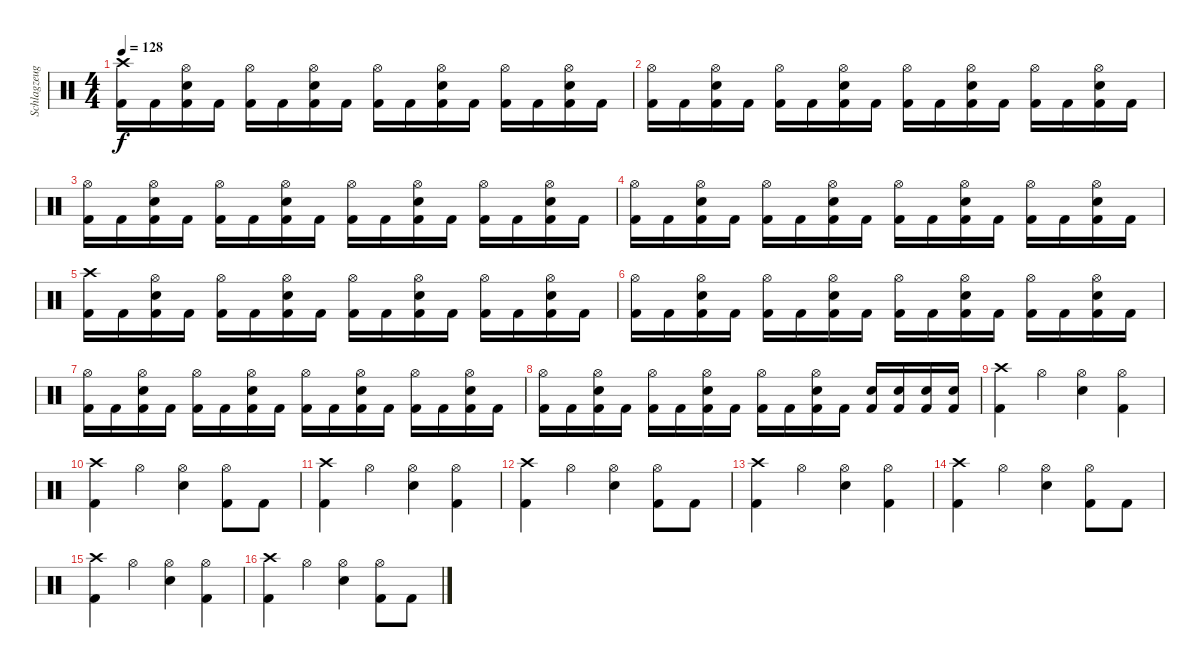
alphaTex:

\track ("Schlagzeug" "Schlagzeug") {instrument percussion}
\staff {score}
\articulation defaults
\ts (4 4)
\tempo 128
\clef neutral
\ks c
("Crash high (hit)" "Kick (hit) 2").16{dy f} "Kick (hit) 2".16 ("Hi-Hat (open)" "Snare (hit) 2" "Kick (hit) 2").16 "Kick (hit) 2".16 ("Hi-Hat (open)" "Kick (hit) 2").16 "Kick (hit) 2".16 ("Hi-Hat (open)" "Snare (hit) 2" "Kick (hit) 2").16 "Kick (hit) 2".16 ("Hi-Hat (open)" "Kick (hit) 2").16 "Kick (hit) 2".16 ("Hi-Hat (open)" "Snare (hit) 2" "Kick (hit) 2").16 "Kick (hit) 2".16 ("Hi-Hat (open)" "Kick (hit) 2").16 "Kick (hit) 2".16 ("Hi-Hat (open)" "Snare (hit) 2" "Kick (hit) 2").16 "Kick (hit) 2".16 |
("Hi-Hat (open)" "Kick (hit) 2").16 "Kick (hit) 2".16 ("Hi-Hat (open)" "Snare (hit) 2" "Kick (hit) 2").16 "Kick (hit) 2".16 ("Hi-Hat (open)" "Kick (hit) 2").16 "Kick (hit) 2".16 ("Hi-Hat (open)" "Snare (hit) 2" "Kick (hit) 2").16 "Kick (hit) 2".16 ("Hi-Hat (open)" "Kick (hit) 2").16 "Kick (hit) 2".16 ("Hi-Hat (open)" "Snare (hit) 2" "Kick (hit) 2").16 "Kick (hit) 2".16 ("Hi-Hat (open)" "Kick (hit) 2").16 "Kick (hit) 2".16 ("Hi-Hat (open)" "Snare (hit) 2" "Kick (hit) 2").16 "Kick (hit) 2".16 |
("Hi-Hat (open)" "Kick (hit) 2").16 "Kick (hit) 2".16 ("Hi-Hat (open)" "Snare (hit) 2" "Kick (hit) 2").16 "Kick (hit) 2".16 ("Hi-Hat (open)" "Kick (hit) 2").16 "Kick (hit) 2".16 ("Hi-Hat (open)" "Snare (hit) 2" "Kick (hit) 2").16 "Kick (hit) 2".16 ("Hi-Hat (open)" "Kick (hit) 2").16 "Kick (hit) 2".16 ("Hi-Hat (open)" "Snare (hit) 2" "Kick (hit) 2").16 "Kick (hit) 2".16 ("Hi-Hat (open)" "Kick (hit) 2").16 "Kick (hit) 2".16 ("Hi-Hat (open)" "Snare (hit) 2" "Kick (hit) 2").16 "Kick (hit) 2".16 |
("Hi-Hat (open)" "Kick (hit) 2").16 "Kick (hit) 2".16 ("Hi-Hat (open)" "Snare (hit) 2" "Kick (hit) 2").16 "Kick (hit) 2".16 ("Hi-Hat (open)" "Kick (hit) 2").16 "Kick (hit) 2".16 ("Hi-Hat (open)" "Snare (hit) 2" "Kick (hit) 2").16 "Kick (hit) 2".16 ("Hi-Hat (open)" "Kick (hit) 2").16 "Kick (hit) 2".16 ("Hi-Hat (open)" "Snare (hit) 2" "Kick (hit) 2").16 "Kick (hit) 2".16 ("Hi-Hat (open)" "Kick (hit) 2").16 "Kick (hit) 2".16 ("Hi-Hat (open)" "Snare (hit) 2" "Kick (hit) 2").16 "Kick (hit) 2".16 |
("Crash high (hit)" "Kick (hit) 2").16 "Kick (hit) 2".16 ("Hi-Hat (open)" "Snare (hit) 2" "Kick (hit) 2").16 "Kick (hit) 2".16 ("Hi-Hat (open)" "Kick (hit) 2").16 "Kick (hit) 2".16 ("Hi-Hat (open)" "Snare (hit) 2" "Kick (hit) 2").16 "Kick (hit) 2".16 ("Hi-Hat (open)" "Kick (hit) 2").16 "Kick (hit) 2".16 ("Hi-Hat (open)" "Snare (hit) 2" "Kick (hit) 2").16 "Kick (hit) 2".16 ("Hi-Hat (open)" "Kick (hit) 2").16 "Kick (hit) 2".16 ("Hi-Hat (open)" "Snare (hit) 2" "Kick (hit) 2").16 "Kick (hit) 2".16 |
("Hi-Hat (open)" "Kick (hit) 2").16 "Kick (hit) 2".16 ("Hi-Hat (open)" "Snare (hit) 2" "Kick (hit) 2").16 "Kick (hit) 2".16 ("Hi-Hat (open)" "Kick (hit) 2").16 "Kick (hit) 2".16 ("Hi-Hat (open)" "Snare (hit) 2" "Kick (hit) 2").16 "Kick (hit) 2".16 ("Hi-Hat (open)" "Kick (hit) 2").16 "Kick (hit) 2".16 ("Hi-Hat (open)" "Snare (hit) 2" "Kick (hit) 2").16 "Kick (hit) 2".16 ("Hi-Hat (open)" "Kick (hit) 2").16 "Kick (hit) 2".16 ("Hi-Hat (open)" "Snare (hit) 2" "Kick (hit) 2").16 "Kick (hit) 2".16 |
("Hi-Hat (open)" "Kick (hit) 2").16 "Kick (hit) 2".16 ("Hi-Hat (open)" "Snare (hit) 2" "Kick (hit) 2").16 "Kick (hit) 2".16 ("Hi-Hat (open)" "Kick (hit) 2").16 "Kick (hit) 2".16 ("Hi-Hat (open)" "Snare (hit) 2" "Kick (hit) 2").16 "Kick (hit) 2".16 ("Hi-Hat (open)" "Kick (hit) 2").16 "Kick (hit) 2".16 ("Hi-Hat (open)" "Snare (hit) 2" "Kick (hit) 2").16 "Kick (hit) 2".16 ("Hi-Hat (open)" "Kick (hit) 2").16 "Kick (hit) 2".16 ("Hi-Hat (open)" "Snare (hit) 2" "Kick (hit) 2").16 "Kick (hit) 2".16 |
("Hi-Hat (open)" "Kick (hit) 2").16 "Kick (hit) 2".16 ("Hi-Hat (open)" "Snare (hit) 2" "Kick (hit) 2").16 "Kick (hit) 2".16 ("Hi-Hat (open)" "Kick (hit) 2").16 "Kick (hit) 2".16 ("Hi-Hat (open)" "Snare (hit) 2" "Kick (hit) 2").16 "Kick (hit) 2".16 ("Hi-Hat (open)" "Kick (hit) 2").16 "Kick (hit) 2".16 ("Hi-Hat (open)" "Snare (hit) 2" "Kick (hit) 2").16 "Kick (hit) 2".16 ("Snare (hit) 2" "Kick (hit) 2").16 ("Snare (hit) 2" "Kick (hit) 2").16 ("Snare (hit) 2" "Kick (hit) 2").16 ("Snare (hit) 2" "Kick (hit) 2").16 |
("Crash high (hit)" "Kick (hit) 2").4 "Hi-Hat (open)".4 ("Hi-Hat (open)" "Snare (hit) 2").4 ("Hi-Hat (open)" "Kick (hit) 2").4 |
("Crash high (hit)" "Kick (hit) 2").4 "Hi-Hat (open)".4 ("Hi-Hat (open)" "Snare (hit) 2").4 ("Hi-Hat (open)" "Kick (hit) 2").8 "Kick (hit) 2".8 |
("Crash high (hit)" "Kick (hit) 2").4 "Hi-Hat (open)".4 ("Hi-Hat (open)" "Snare (hit) 2").4 ("Hi-Hat (open)" "Kick (hit) 2").4 |
("Crash high (hit)" "Kick (hit) 2").4 "Hi-Hat (open)".4 ("Hi-Hat (open)" "Snare (hit) 2").4 ("Hi-Hat (open)" "Kick (hit) 2").8 "Kick (hit) 2".8 |
("Crash high (hit)" "Kick (hit) 2").4 "Hi-Hat (open)".4 ("Hi-Hat (open)" "Snare (hit) 2").4 ("Hi-Hat (open)" "Kick (hit) 2").4 |
("Crash high (hit)" "Kick (hit) 2").4 "Hi-Hat (open)".4 ("Hi-Hat (open)" "Snare (hit) 2").4 ("Hi-Hat (open)" "Kick (hit) 2").8 "Kick (hit) 2".8 |
("Crash high (hit)" "Kick (hit) 2").4 "Hi-Hat (open)".4 ("Hi-Hat (open)" "Snare (hit) 2").4 ("Hi-Hat (open)" "Kick (hit) 2").4 |
("Crash high (hit)" "Kick (hit) 2").4 "Hi-Hat (open)".4 ("Hi-Hat (open)" "Snare (hit) 2").4 ("Hi-Hat (open)" "Kick (hit) 2").8 "Kick (hit) 2".8
